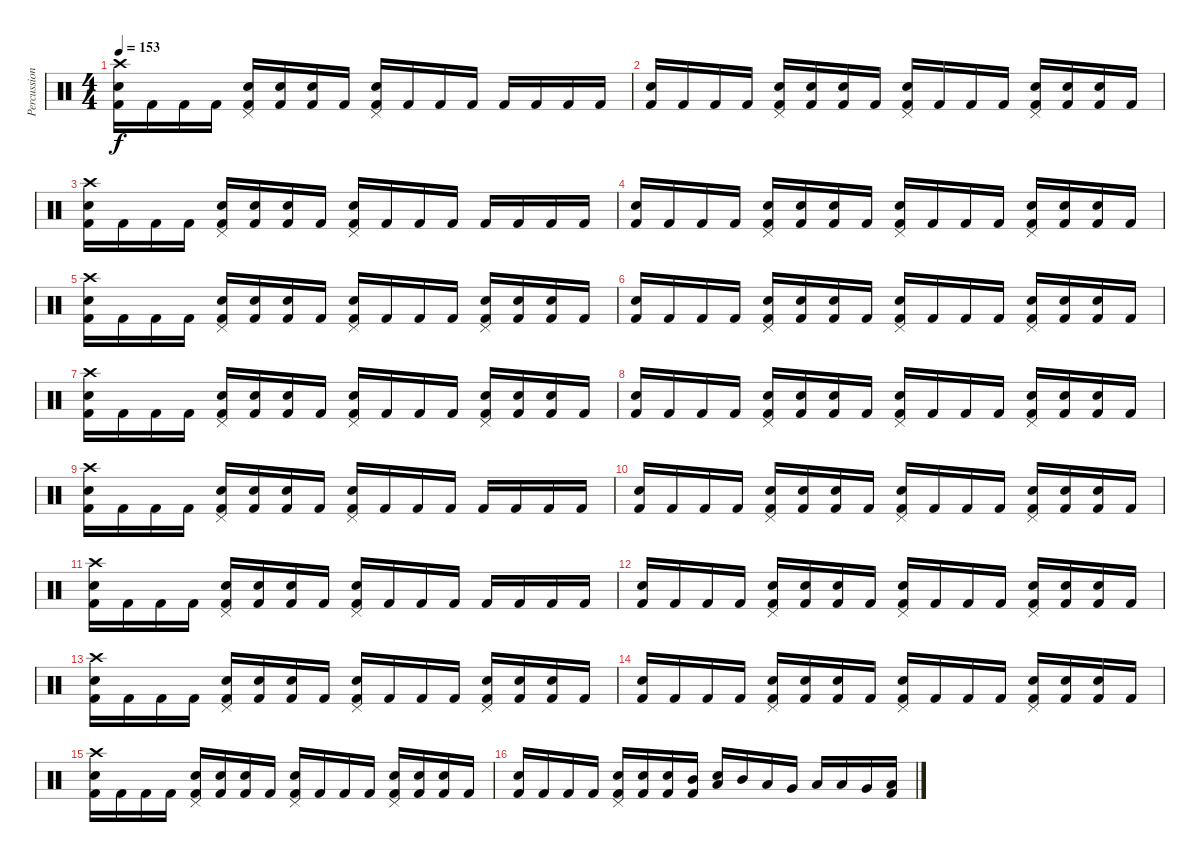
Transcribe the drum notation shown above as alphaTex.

\track ("Percussion" "Percussion") {instrument percussion}
\staff {score}
\articulation defaults
\ts (4 4)
\tempo 153
\clef neutral
\ks c
("Crash high (hit)" "Snare (hit) 2" "Kick (hit) 2").16{dy f} "Kick (hit) 2".16 "Kick (hit) 2".16 "Kick (hit) 2".16 ("Pedal Hi-Hat (hit)" "Snare (hit) 2" "Kick (hit) 2").16 ("Snare (hit) 2" "Kick (hit) 2").16 ("Snare (hit) 2" "Kick (hit) 2").16 "Kick (hit) 2".16 ("Pedal Hi-Hat (hit)" "Snare (hit) 2" "Kick (hit) 2").16 "Kick (hit) 2".16 "Kick (hit) 2".16 "Kick (hit) 2".16 "Kick (hit) 2".16 "Kick (hit) 2".16 "Kick (hit) 2".16 "Kick (hit) 2".16 |
("Snare (hit) 2" "Kick (hit) 2").16 "Kick (hit) 2".16 "Kick (hit) 2".16 "Kick (hit) 2".16 ("Pedal Hi-Hat (hit)" "Snare (hit) 2" "Kick (hit) 2").16 ("Snare (hit) 2" "Kick (hit) 2").16 ("Snare (hit) 2" "Kick (hit) 2").16 "Kick (hit) 2".16 ("Pedal Hi-Hat (hit)" "Snare (hit) 2" "Kick (hit) 2").16 "Kick (hit) 2".16 "Kick (hit) 2".16 "Kick (hit) 2".16 ("Pedal Hi-Hat (hit)" "Snare (hit) 2" "Kick (hit) 2").16 ("Snare (hit) 2" "Kick (hit) 2").16 ("Snare (hit) 2" "Kick (hit) 2").16 "Kick (hit) 2".16 |
("Crash high (hit)" "Snare (hit) 2" "Kick (hit) 2").16 "Kick (hit) 2".16 "Kick (hit) 2".16 "Kick (hit) 2".16 ("Pedal Hi-Hat (hit)" "Snare (hit) 2" "Kick (hit) 2").16 ("Snare (hit) 2" "Kick (hit) 2").16 ("Snare (hit) 2" "Kick (hit) 2").16 "Kick (hit) 2".16 ("Pedal Hi-Hat (hit)" "Snare (hit) 2" "Kick (hit) 2").16 "Kick (hit) 2".16 "Kick (hit) 2".16 "Kick (hit) 2".16 "Kick (hit) 2".16 "Kick (hit) 2".16 "Kick (hit) 2".16 "Kick (hit) 2".16 |
("Snare (hit) 2" "Kick (hit) 2").16 "Kick (hit) 2".16 "Kick (hit) 2".16 "Kick (hit) 2".16 ("Pedal Hi-Hat (hit)" "Snare (hit) 2" "Kick (hit) 2").16 ("Snare (hit) 2" "Kick (hit) 2").16 ("Snare (hit) 2" "Kick (hit) 2").16 "Kick (hit) 2".16 ("Pedal Hi-Hat (hit)" "Snare (hit) 2" "Kick (hit) 2").16 "Kick (hit) 2".16 "Kick (hit) 2".16 "Kick (hit) 2".16 ("Pedal Hi-Hat (hit)" "Snare (hit) 2" "Kick (hit) 2").16 ("Snare (hit) 2" "Kick (hit) 2").16 ("Snare (hit) 2" "Kick (hit) 2").16 "Kick (hit) 2".16 |
("Crash high (hit)" "Snare (hit) 2" "Kick (hit) 2").16 "Kick (hit) 2".16 "Kick (hit) 2".16 "Kick (hit) 2".16 ("Pedal Hi-Hat (hit)" "Snare (hit) 2" "Kick (hit) 2").16 ("Snare (hit) 2" "Kick (hit) 2").16 ("Snare (hit) 2" "Kick (hit) 2").16 "Kick (hit) 2".16 ("Pedal Hi-Hat (hit)" "Snare (hit) 2" "Kick (hit) 2").16 "Kick (hit) 2".16 "Kick (hit) 2".16 "Kick (hit) 2".16 ("Pedal Hi-Hat (hit)" "Snare (hit) 2" "Kick (hit) 2").16 ("Snare (hit) 2" "Kick (hit) 2").16 ("Snare (hit) 2" "Kick (hit) 2").16 "Kick (hit) 2".16 |
("Snare (hit) 2" "Kick (hit) 2").16 "Kick (hit) 2".16 "Kick (hit) 2".16 "Kick (hit) 2".16 ("Pedal Hi-Hat (hit)" "Snare (hit) 2" "Kick (hit) 2").16 ("Snare (hit) 2" "Kick (hit) 2").16 ("Snare (hit) 2" "Kick (hit) 2").16 "Kick (hit) 2".16 ("Pedal Hi-Hat (hit)" "Snare (hit) 2" "Kick (hit) 2").16 "Kick (hit) 2".16 "Kick (hit) 2".16 "Kick (hit) 2".16 ("Pedal Hi-Hat (hit)" "Snare (hit) 2" "Kick (hit) 2").16 ("Snare (hit) 2" "Kick (hit) 2").16 ("Snare (hit) 2" "Kick (hit) 2").16 "Kick (hit) 2".16 |
("Crash high (hit)" "Snare (hit) 2" "Kick (hit) 2").16 "Kick (hit) 2".16 "Kick (hit) 2".16 "Kick (hit) 2".16 ("Pedal Hi-Hat (hit)" "Snare (hit) 2" "Kick (hit) 2").16 ("Snare (hit) 2" "Kick (hit) 2").16 ("Snare (hit) 2" "Kick (hit) 2").16 "Kick (hit) 2".16 ("Pedal Hi-Hat (hit)" "Snare (hit) 2" "Kick (hit) 2").16 "Kick (hit) 2".16 "Kick (hit) 2".16 "Kick (hit) 2".16 ("Pedal Hi-Hat (hit)" "Snare (hit) 2" "Kick (hit) 2").16 ("Snare (hit) 2" "Kick (hit) 2").16 ("Snare (hit) 2" "Kick (hit) 2").16 "Kick (hit) 2".16 |
("Snare (hit) 2" "Kick (hit) 2").16 "Kick (hit) 2".16 "Kick (hit) 2".16 "Kick (hit) 2".16 ("Pedal Hi-Hat (hit)" "Snare (hit) 2" "Kick (hit) 2").16 ("Snare (hit) 2" "Kick (hit) 2").16 ("Snare (hit) 2" "Kick (hit) 2").16 "Kick (hit) 2".16 ("Pedal Hi-Hat (hit)" "Snare (hit) 2" "Kick (hit) 2").16 "Kick (hit) 2".16 "Kick (hit) 2".16 "Kick (hit) 2".16 ("Pedal Hi-Hat (hit)" "Snare (hit) 2" "Kick (hit) 2").16 ("Snare (hit) 2" "Kick (hit) 2").16 ("Snare (hit) 2" "Kick (hit) 2").16 "Kick (hit) 2".16 |
("Crash high (hit)" "Snare (hit) 2" "Kick (hit) 2").16 "Kick (hit) 2".16 "Kick (hit) 2".16 "Kick (hit) 2".16 ("Pedal Hi-Hat (hit)" "Snare (hit) 2" "Kick (hit) 2").16 ("Snare (hit) 2" "Kick (hit) 2").16 ("Snare (hit) 2" "Kick (hit) 2").16 "Kick (hit) 2".16 ("Pedal Hi-Hat (hit)" "Snare (hit) 2" "Kick (hit) 2").16 "Kick (hit) 2".16 "Kick (hit) 2".16 "Kick (hit) 2".16 "Kick (hit) 2".16 "Kick (hit) 2".16 "Kick (hit) 2".16 "Kick (hit) 2".16 |
("Snare (hit) 2" "Kick (hit) 2").16 "Kick (hit) 2".16 "Kick (hit) 2".16 "Kick (hit) 2".16 ("Pedal Hi-Hat (hit)" "Snare (hit) 2" "Kick (hit) 2").16 ("Snare (hit) 2" "Kick (hit) 2").16 ("Snare (hit) 2" "Kick (hit) 2").16 "Kick (hit) 2".16 ("Pedal Hi-Hat (hit)" "Snare (hit) 2" "Kick (hit) 2").16 "Kick (hit) 2".16 "Kick (hit) 2".16 "Kick (hit) 2".16 ("Pedal Hi-Hat (hit)" "Snare (hit) 2" "Kick (hit) 2").16 ("Snare (hit) 2" "Kick (hit) 2").16 ("Snare (hit) 2" "Kick (hit) 2").16 "Kick (hit) 2".16 |
("Crash high (hit)" "Snare (hit) 2" "Kick (hit) 2").16 "Kick (hit) 2".16 "Kick (hit) 2".16 "Kick (hit) 2".16 ("Pedal Hi-Hat (hit)" "Snare (hit) 2" "Kick (hit) 2").16 ("Snare (hit) 2" "Kick (hit) 2").16 ("Snare (hit) 2" "Kick (hit) 2").16 "Kick (hit) 2".16 ("Pedal Hi-Hat (hit)" "Snare (hit) 2" "Kick (hit) 2").16 "Kick (hit) 2".16 "Kick (hit) 2".16 "Kick (hit) 2".16 "Kick (hit) 2".16 "Kick (hit) 2".16 "Kick (hit) 2".16 "Kick (hit) 2".16 |
("Snare (hit) 2" "Kick (hit) 2").16 "Kick (hit) 2".16 "Kick (hit) 2".16 "Kick (hit) 2".16 ("Pedal Hi-Hat (hit)" "Snare (hit) 2" "Kick (hit) 2").16 ("Snare (hit) 2" "Kick (hit) 2").16 ("Snare (hit) 2" "Kick (hit) 2").16 "Kick (hit) 2".16 ("Pedal Hi-Hat (hit)" "Snare (hit) 2" "Kick (hit) 2").16 "Kick (hit) 2".16 "Kick (hit) 2".16 "Kick (hit) 2".16 ("Pedal Hi-Hat (hit)" "Snare (hit) 2" "Kick (hit) 2").16 ("Snare (hit) 2" "Kick (hit) 2").16 ("Snare (hit) 2" "Kick (hit) 2").16 "Kick (hit) 2".16 |
("Crash high (hit)" "Snare (hit) 2" "Kick (hit) 2").16 "Kick (hit) 2".16 "Kick (hit) 2".16 "Kick (hit) 2".16 ("Pedal Hi-Hat (hit)" "Snare (hit) 2" "Kick (hit) 2").16 ("Snare (hit) 2" "Kick (hit) 2").16 ("Snare (hit) 2" "Kick (hit) 2").16 "Kick (hit) 2".16 ("Pedal Hi-Hat (hit)" "Snare (hit) 2" "Kick (hit) 2").16 "Kick (hit) 2".16 "Kick (hit) 2".16 "Kick (hit) 2".16 ("Pedal Hi-Hat (hit)" "Snare (hit) 2" "Kick (hit) 2").16 ("Snare (hit) 2" "Kick (hit) 2").16 ("Snare (hit) 2" "Kick (hit) 2").16 "Kick (hit) 2".16 |
("Snare (hit) 2" "Kick (hit) 2").16 "Kick (hit) 2".16 "Kick (hit) 2".16 "Kick (hit) 2".16 ("Pedal Hi-Hat (hit)" "Snare (hit) 2" "Kick (hit) 2").16 ("Snare (hit) 2" "Kick (hit) 2").16 ("Snare (hit) 2" "Kick (hit) 2").16 "Kick (hit) 2".16 ("Pedal Hi-Hat (hit)" "Snare (hit) 2" "Kick (hit) 2").16 "Kick (hit) 2".16 "Kick (hit) 2".16 "Kick (hit) 2".16 ("Pedal Hi-Hat (hit)" "Snare (hit) 2" "Kick (hit) 2").16 ("Snare (hit) 2" "Kick (hit) 2").16 ("Snare (hit) 2" "Kick (hit) 2").16 "Kick (hit) 2".16 |
("Crash high (hit)" "Snare (hit) 2" "Kick (hit) 2").16 "Kick (hit) 2".16 "Kick (hit) 2".16 "Kick (hit) 2".16 ("Pedal Hi-Hat (hit)" "Snare (hit) 2" "Kick (hit) 2").16 ("Snare (hit) 2" "Kick (hit) 2").16 ("Snare (hit) 2" "Kick (hit) 2").16 "Kick (hit) 2".16 ("Pedal Hi-Hat (hit)" "Snare (hit) 2" "Kick (hit) 2").16 "Kick (hit) 2".16 "Kick (hit) 2".16 "Kick (hit) 2".16 ("Pedal Hi-Hat (hit)" "Snare (hit) 2" "Kick (hit) 2").16 ("Snare (hit) 2" "Kick (hit) 2").16 ("Snare (hit) 2" "Kick (hit) 2").16 "Kick (hit) 2".16 |
("Snare (hit) 2" "Kick (hit) 2").16 "Kick (hit) 2".16 "Kick (hit) 2".16 "Kick (hit) 2".16 ("Pedal Hi-Hat (hit)" "Snare (hit) 2" "Kick (hit) 2").16 ("Snare (hit) 2" "Kick (hit) 2").16 ("Snare (hit) 2" "Kick (hit) 2").16 ("Mid Tom (hit)" "Kick (hit) 2").16 ("Low Tom (hit)" "Snare (hit) 2").16 "Mid Tom (hit)".16 "Low Tom (hit)".16 "Very Low Tom (hit)".16 "Low Tom (hit)".16 "Low Floor Tom (hit)".16 "Very Low Tom (hit)".16 ("Low Floor Tom (hit)" "Kick (hit) 2").16
